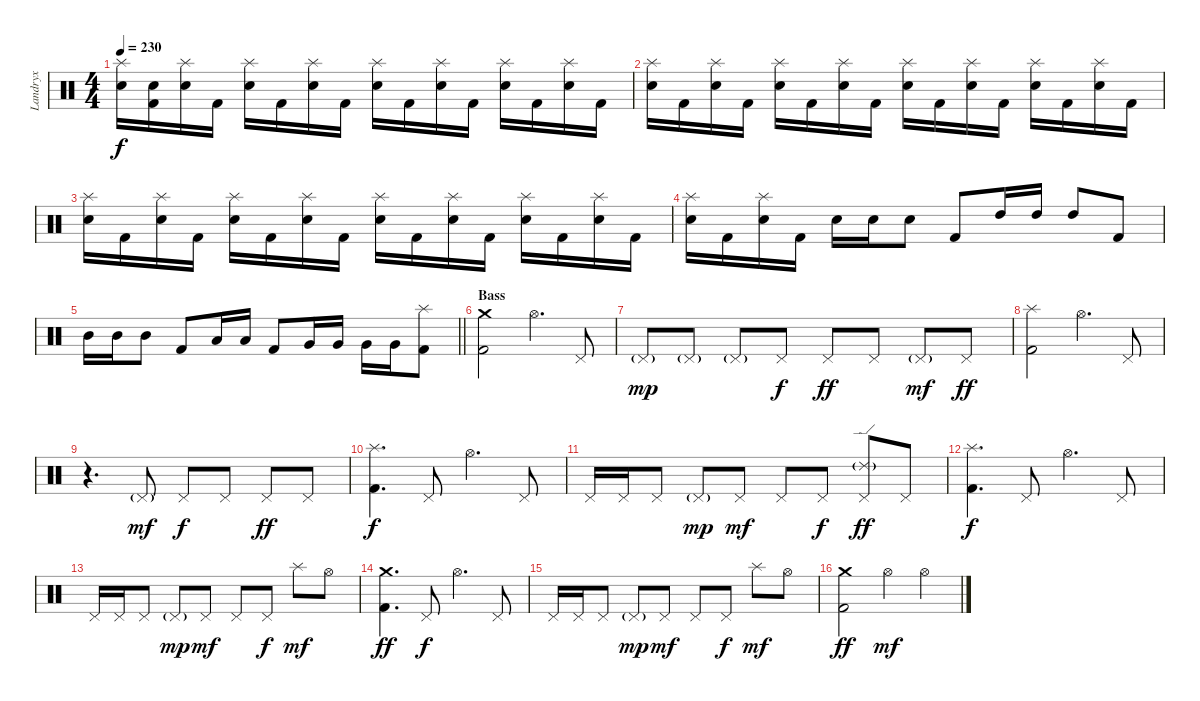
\track ("Landryx" "Landryx") {instrument percussion}
\staff {score}
\articulation defaults
\ts (4 4)
\tempo 230
\clef neutral
\ks c
("Splash (hit)" "Electric Snare (hit)").16{dy f} ("Electric Snare (hit)" "Kick (hit) 2").16 ("Splash (hit)" "Electric Snare (hit)").16 "Kick (hit) 2".16 ("Splash (hit)" "Electric Snare (hit)").16 "Kick (hit) 2".16 ("Splash (hit)" "Electric Snare (hit)").16 "Kick (hit) 2".16 ("Splash (hit)" "Electric Snare (hit)").16 "Kick (hit) 2".16 ("Splash (hit)" "Electric Snare (hit)").16 "Kick (hit) 2".16 ("Splash (hit)" "Electric Snare (hit)").16 "Kick (hit) 2".16 ("Splash (hit)" "Electric Snare (hit)").16 "Kick (hit) 2".16 |
("Splash (hit)" "Electric Snare (hit)").16 "Kick (hit) 2".16 ("Splash (hit)" "Electric Snare (hit)").16 "Kick (hit) 2".16 ("Splash (hit)" "Electric Snare (hit)").16 "Kick (hit) 2".16 ("Splash (hit)" "Electric Snare (hit)").16 "Kick (hit) 2".16 ("Splash (hit)" "Electric Snare (hit)").16 "Kick (hit) 2".16 ("Splash (hit)" "Electric Snare (hit)").16 "Kick (hit) 2".16 ("Splash (hit)" "Electric Snare (hit)").16 "Kick (hit) 2".16 ("Splash (hit)" "Electric Snare (hit)").16 "Kick (hit) 2".16 |
("Splash (hit)" "Electric Snare (hit)").16 "Kick (hit) 2".16 ("Splash (hit)" "Electric Snare (hit)").16 "Kick (hit) 2".16 ("Splash (hit)" "Electric Snare (hit)").16 "Kick (hit) 2".16 ("Splash (hit)" "Electric Snare (hit)").16 "Kick (hit) 2".16 ("Splash (hit)" "Electric Snare (hit)").16 "Kick (hit) 2".16 ("Splash (hit)" "Electric Snare (hit)").16 "Kick (hit) 2".16 ("Splash (hit)" "Electric Snare (hit)").16 "Kick (hit) 2".16 ("Splash (hit)" "Electric Snare (hit)").16 "Kick (hit) 2".16 |
("Splash (hit)" "Electric Snare (hit)").16 "Kick (hit) 2".16 ("Splash (hit)" "Electric Snare (hit)").16 "Kick (hit) 2".16 "Electric Snare (hit)".16 "Electric Snare (hit)".16 "Electric Snare (hit)".8 "Kick (hit) 2".8 "High Tom (hit)".16 "High Tom (hit)".16 "High Tom (hit)".8 "Kick (hit) 2".8 |
\barLineRight lightlight "Mid Tom (hit)".16 "Mid Tom (hit)".16 "Mid Tom (hit)".8 "Kick (hit) 2".8 "Low Tom (hit)".16 "Low Tom (hit)".16 "Kick (hit) 2".8 "Very Low Tom (hit)".16 "Very Low Tom (hit)".16 "Very Low Tom (hit)".16 "Very Low Tom (hit)".16
("Splash (hit)" "Kick (hit) 2").8 |
\section ("" "Bass")
("Crash medium (hit)" "Kick (hit) 2").2 "Hi-Hat (open)".4{d} "Pedal Hi-Hat (hit)".8 |
"Pedal Hi-Hat (hit)"{g}.8{dy mp} "Pedal Hi-Hat (hit)"{g}.8 "Pedal Hi-Hat (hit)"{g}.8 "Pedal Hi-Hat (hit)".8{dy f} "Pedal Hi-Hat (hit)".8{dy ff} "Pedal Hi-Hat (hit)".8 "Pedal Hi-Hat (hit)"{g}.8{dy mf} "Pedal Hi-Hat (hit)".8{dy ff} |
("Splash (hit)" "Kick (hit) 2").2 "Hi-Hat (open)".4{d} "Pedal Hi-Hat (hit)".8 |
r.4{d} "Pedal Hi-Hat (hit)"{g}.8{dy mf} "Pedal Hi-Hat (hit)".8{dy f} "Pedal Hi-Hat (hit)".8 "Pedal Hi-Hat (hit)".8{dy ff} "Pedal Hi-Hat (hit)".8 |
("Splash (hit)" "Kick (hit) 2").4{d dy f} "Pedal Hi-Hat (hit)".8 "Hi-Hat (open)".4{d} "Pedal Hi-Hat (hit)".8 |
"Pedal Hi-Hat (hit)".16 "Pedal Hi-Hat (hit)".16 "Pedal Hi-Hat (hit)".8 "Pedal Hi-Hat (hit)"{g}.8{dy mp} "Pedal Hi-Hat (hit)".8{dy mf} "Pedal Hi-Hat (hit)".8 "Pedal Hi-Hat (hit)".8{dy f} ("Ride (edge) 2"{g} "Pedal Hi-Hat (hit)").8{dy ff} "Pedal Hi-Hat (hit)".8 |
("Splash (hit)" "Kick (hit) 2").4{d dy f} "Pedal Hi-Hat (hit)".8 "Hi-Hat (open)".4{d} "Pedal Hi-Hat (hit)".8 |
"Pedal Hi-Hat (hit)".16 "Pedal Hi-Hat (hit)".16 "Pedal Hi-Hat (hit)".8 "Pedal Hi-Hat (hit)"{g}.8{dy mp} "Pedal Hi-Hat (hit)".8{dy mf} "Pedal Hi-Hat (hit)".8 "Pedal Hi-Hat (hit)".8{dy f} "Splash (hit)".8{dy mf} "Hi-Hat (open)".8 |
("Crash medium (hit)" "Kick (hit) 2").4{d dy ff} "Pedal Hi-Hat (hit)".8{dy f} "Hi-Hat (open)".4{d} "Pedal Hi-Hat (hit)".8 |
"Pedal Hi-Hat (hit)".16 "Pedal Hi-Hat (hit)".16 "Pedal Hi-Hat (hit)".8 "Pedal Hi-Hat (hit)"{g}.8{dy mp} "Pedal Hi-Hat (hit)".8{dy mf} "Pedal Hi-Hat (hit)".8 "Pedal Hi-Hat (hit)".8{dy f} "Splash (hit)".8{dy mf} "Hi-Hat (open)".8 |
("Crash medium (hit)" "Kick (hit) 2").2{dy ff} "Hi-Hat (open)".4{dy mf} "Hi-Hat (open)".4
